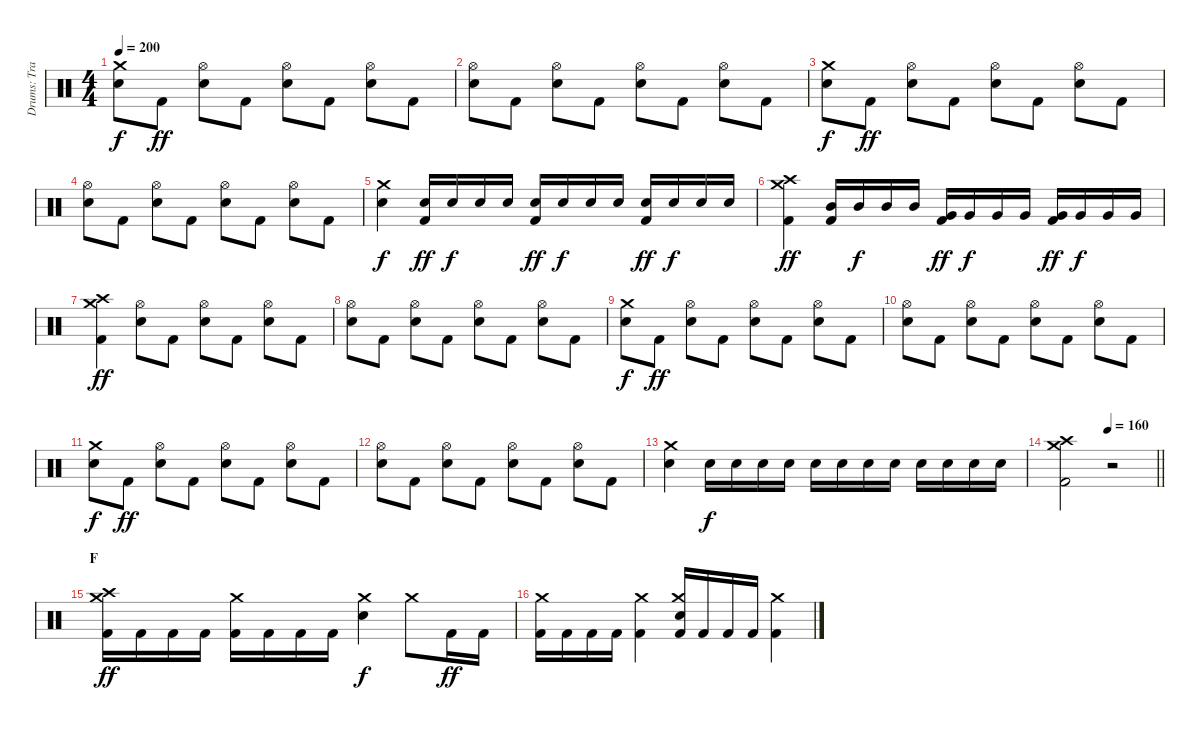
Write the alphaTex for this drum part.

\track ("Drums: Travis Clarke" "Drums: Tra") {instrument percussion}
\staff {score}
\articulation defaults
\ts (4 4)
\tempo 200
\clef neutral
\ks c
("Snare (hit) 2" "Crash medium (hit)").8{dy f} "Kick (hit) 2".8{dy ff} ("Snare (hit) 2" "Hi-Hat (open)").8 "Kick (hit) 2".8 ("Snare (hit) 2" "Hi-Hat (open)").8 "Kick (hit) 2".8 ("Snare (hit) 2" "Hi-Hat (open)").8 "Kick (hit) 2".8 |
("Snare (hit) 2" "Hi-Hat (open)").8 "Kick (hit) 2".8 ("Snare (hit) 2" "Hi-Hat (open)").8 "Kick (hit) 2".8 ("Snare (hit) 2" "Hi-Hat (open)").8 "Kick (hit) 2".8 ("Snare (hit) 2" "Hi-Hat (open)").8 "Kick (hit) 2".8 |
("Snare (hit) 2" "Crash medium (hit)").8{dy f} "Kick (hit) 2".8{dy ff} ("Snare (hit) 2" "Hi-Hat (open)").8 "Kick (hit) 2".8 ("Snare (hit) 2" "Hi-Hat (open)").8 "Kick (hit) 2".8 ("Snare (hit) 2" "Hi-Hat (open)").8 "Kick (hit) 2".8 |
("Snare (hit) 2" "Hi-Hat (open)").8 "Kick (hit) 2".8 ("Snare (hit) 2" "Hi-Hat (open)").8 "Kick (hit) 2".8 ("Snare (hit) 2" "Hi-Hat (open)").8 "Kick (hit) 2".8 ("Snare (hit) 2" "Hi-Hat (open)").8 "Kick (hit) 2".8 |
("Snare (hit) 2" "Crash medium (hit)").4{dy f} ("Kick (hit) 2" "Snare (hit) 2").16{dy ff} "Snare (hit) 2".16{dy f} "Snare (hit) 2".16 "Snare (hit) 2".16 ("Kick (hit) 2" "Snare (hit) 2").16{dy ff} "Snare (hit) 2".16{dy f} "Snare (hit) 2".16 "Snare (hit) 2".16 ("Kick (hit) 2" "Snare (hit) 2").16{dy ff} "Snare (hit) 2".16{dy f} "Snare (hit) 2".16 "Snare (hit) 2".16 |
("Kick (hit) 2" "Crash high (hit)" "Crash medium (hit)").4{dy ff} ("Kick (hit) 2" "Mid Tom (hit)").16 "Mid Tom (hit)".16{dy f} "Mid Tom (hit)".16 "Mid Tom (hit)".16 ("Kick (hit) 2" "Very Low Tom (hit)").16{dy ff} "Very Low Tom (hit)".16{dy f} "Very Low Tom (hit)".16 "Very Low Tom (hit)".16 ("Kick (hit) 2" "Very Low Tom (hit)").16{dy ff} "Very Low Tom (hit)".16{dy f} "Very Low Tom (hit)".16 "Very Low Tom (hit)".16 |
("Kick (hit) 2" "Crash high (hit)" "Crash medium (hit)").4{dy ff} ("Snare (hit) 2" "Hi-Hat (open)").8 "Kick (hit) 2".8 ("Snare (hit) 2" "Hi-Hat (open)").8 "Kick (hit) 2".8 ("Snare (hit) 2" "Hi-Hat (open)").8 "Kick (hit) 2".8 |
("Snare (hit) 2" "Hi-Hat (open)").8 "Kick (hit) 2".8 ("Snare (hit) 2" "Hi-Hat (open)").8 "Kick (hit) 2".8 ("Snare (hit) 2" "Hi-Hat (open)").8 "Kick (hit) 2".8 ("Snare (hit) 2" "Hi-Hat (open)").8 "Kick (hit) 2".8 |
("Snare (hit) 2" "Crash medium (hit)").8{dy f} "Kick (hit) 2".8{dy ff} ("Snare (hit) 2" "Hi-Hat (open)").8 "Kick (hit) 2".8 ("Snare (hit) 2" "Hi-Hat (open)").8 "Kick (hit) 2".8 ("Snare (hit) 2" "Hi-Hat (open)").8 "Kick (hit) 2".8 |
("Snare (hit) 2" "Hi-Hat (open)").8 "Kick (hit) 2".8 ("Snare (hit) 2" "Hi-Hat (open)").8 "Kick (hit) 2".8 ("Snare (hit) 2" "Hi-Hat (open)").8 "Kick (hit) 2".8 ("Snare (hit) 2" "Hi-Hat (open)").8 "Kick (hit) 2".8 |
("Snare (hit) 2" "Crash medium (hit)").8{dy f} "Kick (hit) 2".8{dy ff} ("Snare (hit) 2" "Hi-Hat (open)").8 "Kick (hit) 2".8 ("Snare (hit) 2" "Hi-Hat (open)").8 "Kick (hit) 2".8 ("Snare (hit) 2" "Hi-Hat (open)").8 "Kick (hit) 2".8 |
("Snare (hit) 2" "Hi-Hat (open)").8 "Kick (hit) 2".8 ("Snare (hit) 2" "Hi-Hat (open)").8 "Kick (hit) 2".8 ("Snare (hit) 2" "Hi-Hat (open)").8 "Kick (hit) 2".8 ("Snare (hit) 2" "Hi-Hat (open)").8 "Kick (hit) 2".8 |
("Snare (hit) 2" "Crash medium (hit)").4 "Snare (hit) 2".16{dy f} "Snare (hit) 2".16 "Snare (hit) 2".16 "Snare (hit) 2".16 "Snare (hit) 2".16 "Snare (hit) 2".16 "Snare (hit) 2".16 "Snare (hit) 2".16 "Snare (hit) 2".16 "Snare (hit) 2".16 "Snare (hit) 2".16 "Snare (hit) 2".16 |
\tempo (160 0.5)
\barLineRight lightlight
("Kick (hit) 2" "Crash high (hit)" "Crash medium (hit)").2 r.2 |
\section ("" "F")
("Kick (hit) 2" "Crash high (hit)" "Crash medium (hit)").16{dy ff} "Kick (hit) 2".16 "Kick (hit) 2".16 "Kick (hit) 2".16 ("Kick (hit) 2" "Crash medium (hit)").16 "Kick (hit) 2".16 "Kick (hit) 2".16 "Kick (hit) 2".16 ("Snare (hit) 2" "Crash medium (hit)").4{dy f} "Crash medium (hit)".8 "Kick (hit) 2".16{dy ff} "Kick (hit) 2".16 |
("Kick (hit) 2" "Crash medium (hit)").16 "Kick (hit) 2".16 "Kick (hit) 2".16 "Kick (hit) 2".16 ("Kick (hit) 2" "Crash medium (hit)").4 ("Kick (hit) 2" "Snare (hit) 2" "Crash medium (hit)").16 "Kick (hit) 2".16 "Kick (hit) 2".16 "Kick (hit) 2".16 ("Kick (hit) 2" "Crash medium (hit)").4
